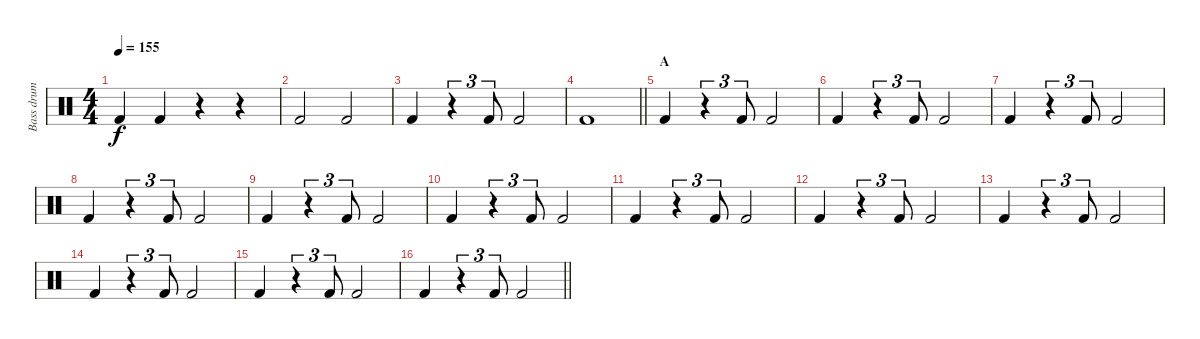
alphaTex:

\track ("Bass drum" "Bass drum") {instrument percussion}
\staff {score}
\articulation defaults
\ts (4 4)
\tempo 155
\clef neutral
\ks c "Kick (hit) 2".4{dy f} "Kick (hit) 2".4
r.4 r.4 |
"Kick (hit) 2".2 "Kick (hit) 2".2 |
"Kick (hit) 2".4 r.4{tu (3 2)} "Kick (hit) 2".8{tu (3 2)} "Kick (hit) 2".2 |
\barLineRight lightlight "Kick (hit) 2".1
|
\section ("" "A")
"Kick (hit) 2".4 r.4{tu (3 2)} "Kick (hit) 2".8{tu (3 2)} "Kick (hit) 2".2 |
"Kick (hit) 2".4 r.4{tu (3 2)} "Kick (hit) 2".8{tu (3 2)} "Kick (hit) 2".2 |
"Kick (hit) 2".4 r.4{tu (3 2)} "Kick (hit) 2".8{tu (3 2)} "Kick (hit) 2".2 |
"Kick (hit) 2".4 r.4{tu (3 2)} "Kick (hit) 2".8{tu (3 2)} "Kick (hit) 2".2 |
"Kick (hit) 2".4 r.4{tu (3 2)} "Kick (hit) 2".8{tu (3 2)} "Kick (hit) 2".2 |
"Kick (hit) 2".4 r.4{tu (3 2)} "Kick (hit) 2".8{tu (3 2)} "Kick (hit) 2".2 |
"Kick (hit) 2".4 r.4{tu (3 2)} "Kick (hit) 2".8{tu (3 2)} "Kick (hit) 2".2 |
"Kick (hit) 2".4 r.4{tu (3 2)} "Kick (hit) 2".8{tu (3 2)} "Kick (hit) 2".2 |
"Kick (hit) 2".4 r.4{tu (3 2)} "Kick (hit) 2".8{tu (3 2)} "Kick (hit) 2".2 |
"Kick (hit) 2".4 r.4{tu (3 2)} "Kick (hit) 2".8{tu (3 2)} "Kick (hit) 2".2 |
"Kick (hit) 2".4 r.4{tu (3 2)} "Kick (hit) 2".8{tu (3 2)} "Kick (hit) 2".2 |
\barLineRight lightlight "Kick (hit) 2".4
r.4{tu (3 2)} "Kick (hit) 2".8{tu (3 2)} "Kick (hit) 2".2
